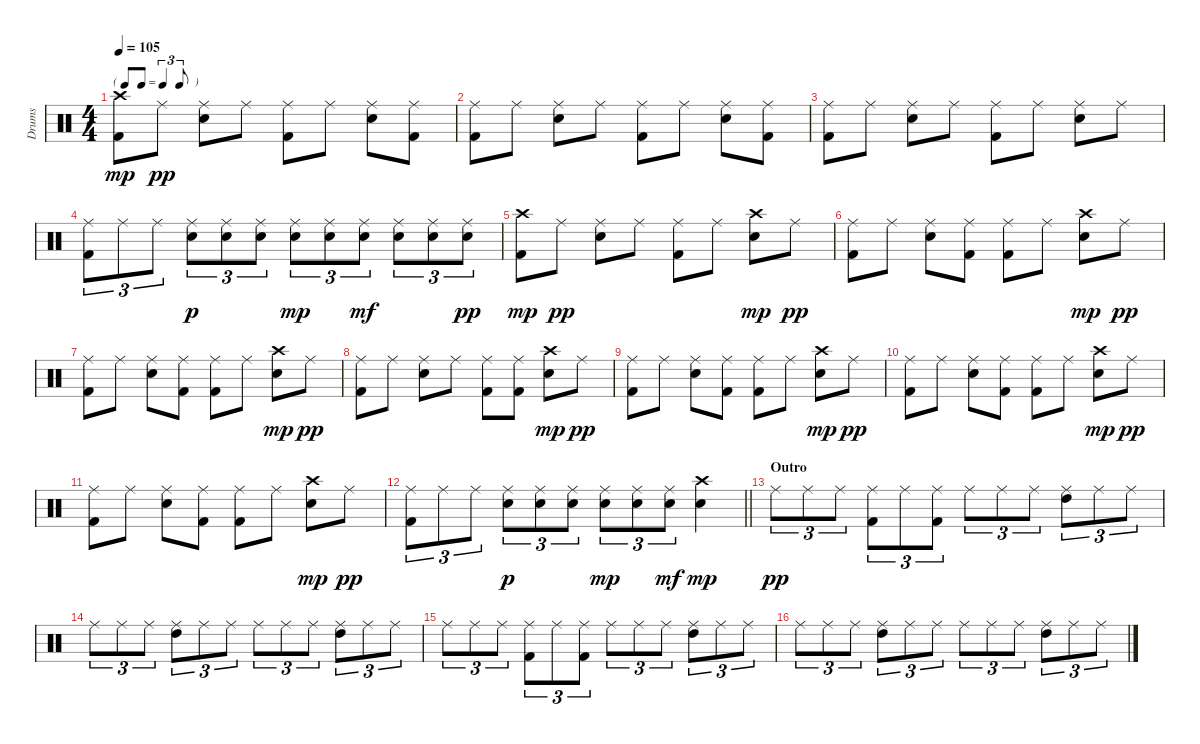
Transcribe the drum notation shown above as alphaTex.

\track ("Drums" "Drums") {instrument percussion}
\staff {score}
\articulation defaults
\ts (4 4)
\tf triplet8th
\tempo 105
\clef neutral
\ks c
("Crash high (hit)" "Kick (hit) 2").8{dy mp} "Ride (middle)".8{dy pp} ("Ride (middle)" "Electric Snare (hit)").8 "Ride (middle)".8 ("Ride (middle)" "Kick (hit) 2").8 "Ride (middle)".8 ("Ride (middle)" "Electric Snare (hit)").8 ("Ride (middle)" "Kick (hit) 2").8 |
("Ride (middle)" "Kick (hit) 2").8 "Ride (middle)".8 ("Ride (middle)" "Electric Snare (hit)").8 "Ride (middle)".8 ("Ride (middle)" "Kick (hit) 2").8 "Ride (middle)".8 ("Ride (middle)" "Electric Snare (hit)").8 ("Ride (middle)" "Kick (hit) 2").8 |
("Ride (middle)" "Kick (hit) 2").8 "Ride (middle)".8 ("Ride (middle)" "Electric Snare (hit)").8 "Ride (middle)".8 ("Ride (middle)" "Kick (hit) 2").8 "Ride (middle)".8 ("Ride (middle)" "Electric Snare (hit)").8 "Ride (middle)".8 |
("Ride (middle)" "Kick (hit) 2").8{tu (3 2)} "Ride (middle)".8{tu (3 2)} "Ride (middle)".8{tu (3 2)} ("Ride (middle)" "Electric Snare (hit)").8{tu (3 2) dy p} ("Ride (middle)" "Electric Snare (hit)").8{tu (3 2)} ("Ride (middle)" "Electric Snare (hit)").8{tu (3 2)} ("Ride (middle)" "Electric Snare (hit)").8{tu (3 2) dy mp} ("Ride (middle)" "Electric Snare (hit)").8{tu (3 2)} ("Ride (middle)" "Electric Snare (hit)").8{tu (3 2) dy mf} ("Ride (middle)" "Electric Snare (hit)").8{tu (3 2)} ("Ride (middle)" "Electric Snare (hit)").8{tu (3 2)} ("Ride (middle)" "Electric Snare (hit)").8{tu (3 2) dy pp} |
("Crash high (hit)" "Kick (hit) 2").8{dy mp} "Ride (middle)".8{dy pp} ("Ride (middle)" "Electric Snare (hit)").8 "Ride (middle)".8 ("Ride (middle)" "Kick (hit) 2").8 "Ride (middle)".8 ("Crash high (hit)" "Electric Snare (hit)").8{dy mp} "Ride (middle)".8{dy pp} |
("Ride (middle)" "Kick (hit) 2").8 "Ride (middle)".8 ("Ride (middle)" "Electric Snare (hit)").8 ("Ride (middle)" "Kick (hit) 2").8 ("Ride (middle)" "Kick (hit) 2").8 "Ride (middle)".8 ("Crash high (hit)" "Electric Snare (hit)").8{dy mp} "Ride (middle)".8{dy pp} |
("Ride (middle)" "Kick (hit) 2").8 "Ride (middle)".8 ("Ride (middle)" "Electric Snare (hit)").8 ("Ride (middle)" "Kick (hit) 2").8 ("Ride (middle)" "Kick (hit) 2").8 "Ride (middle)".8 ("Crash high (hit)" "Electric Snare (hit)").8{dy mp} "Ride (middle)".8{dy pp} |
("Ride (middle)" "Kick (hit) 2").8 "Ride (middle)".8 ("Ride (middle)" "Electric Snare (hit)").8 "Ride (middle)".8 ("Ride (middle)" "Kick (hit) 2").8 ("Ride (middle)" "Kick (hit) 2").8 ("Crash high (hit)" "Electric Snare (hit)").8{dy mp} "Ride (middle)".8{dy pp} |
("Ride (middle)" "Kick (hit) 2").8 "Ride (middle)".8 ("Ride (middle)" "Electric Snare (hit)").8 ("Ride (middle)" "Kick (hit) 2").8 ("Ride (middle)" "Kick (hit) 2").8 "Ride (middle)".8 ("Crash high (hit)" "Electric Snare (hit)").8{dy mp} "Ride (middle)".8{dy pp} |
("Ride (middle)" "Kick (hit) 2").8 "Ride (middle)".8 ("Ride (middle)" "Electric Snare (hit)").8 ("Ride (middle)" "Kick (hit) 2").8 ("Ride (middle)" "Kick (hit) 2").8 "Ride (middle)".8 ("Crash high (hit)" "Electric Snare (hit)").8{dy mp} "Ride (middle)".8{dy pp} |
("Ride (middle)" "Kick (hit) 2").8 "Ride (middle)".8 ("Ride (middle)" "Electric Snare (hit)").8 ("Ride (middle)" "Kick (hit) 2").8 ("Ride (middle)" "Kick (hit) 2").8 "Ride (middle)".8 ("Crash high (hit)" "Electric Snare (hit)").8{dy mp} "Ride (middle)".8{dy pp} |
\barLineRight lightlight
("Ride (middle)" "Kick (hit) 2").8{tu (3 2)} "Ride (middle)".8{tu (3 2)} "Ride (middle)".8{tu (3 2)} ("Ride (middle)" "Electric Snare (hit)").8{tu (3 2) dy p} ("Ride (middle)" "Electric Snare (hit)").8{tu (3 2)} ("Ride (middle)" "Electric Snare (hit)").8{tu (3 2)} ("Ride (middle)" "Electric Snare (hit)").8{tu (3 2) dy mp} ("Ride (middle)" "Electric Snare (hit)").8{tu (3 2)} ("Ride (middle)" "Electric Snare (hit)").8{tu (3 2) dy mf} ("Electric Snare (hit)" "Crash high (hit)").4{dy mp} |
\section ("" "Outro")
"Ride (middle)".8{tu (3 2) dy pp} "Ride (middle)".8{tu (3 2)} "Ride (middle)".8{tu (3 2)} ("Ride (middle)" "Kick (hit) 2").8{tu (3 2)} "Ride (middle)".8{tu (3 2)} ("Ride (middle)" "Kick (hit) 2").8{tu (3 2)} "Ride (middle)".8{tu (3 2)} "Ride (middle)".8{tu (3 2)} "Ride (middle)".8{tu (3 2)} ("Ride (middle)" "High Tom (hit)").8{tu (3 2)} "Ride (middle)".8{tu (3 2)} "Ride (middle)".8{tu (3 2)} |
"Ride (middle)".8{tu (3 2)} "Ride (middle)".8{tu (3 2)} "Ride (middle)".8{tu (3 2)} ("Ride (middle)" "High Tom (hit)").8{tu (3 2)} "Ride (middle)".8{tu (3 2)} "Ride (middle)".8{tu (3 2)} "Ride (middle)".8{tu (3 2)} "Ride (middle)".8{tu (3 2)} "Ride (middle)".8{tu (3 2)} ("Ride (middle)" "High Tom (hit)").8{tu (3 2)} "Ride (middle)".8{tu (3 2)} "Ride (middle)".8{tu (3 2)} |
"Ride (middle)".8{tu (3 2)} "Ride (middle)".8{tu (3 2)} "Ride (middle)".8{tu (3 2)} ("Ride (middle)" "Kick (hit) 2").8{tu (3 2)} "Ride (middle)".8{tu (3 2)} ("Ride (middle)" "Kick (hit) 2").8{tu (3 2)} "Ride (middle)".8{tu (3 2)} "Ride (middle)".8{tu (3 2)} "Ride (middle)".8{tu (3 2)} ("Ride (middle)" "High Tom (hit)").8{tu (3 2)} "Ride (middle)".8{tu (3 2)} "Ride (middle)".8{tu (3 2)} |
"Ride (middle)".8{tu (3 2)} "Ride (middle)".8{tu (3 2)} "Ride (middle)".8{tu (3 2)} ("Ride (middle)" "High Tom (hit)").8{tu (3 2)} "Ride (middle)".8{tu (3 2)} "Ride (middle)".8{tu (3 2)} "Ride (middle)".8{tu (3 2)} "Ride (middle)".8{tu (3 2)} "Ride (middle)".8{tu (3 2)} ("Ride (middle)" "High Tom (hit)").8{tu (3 2)} "Ride (middle)".8{tu (3 2)} "Ride (middle)".8{tu (3 2)}
